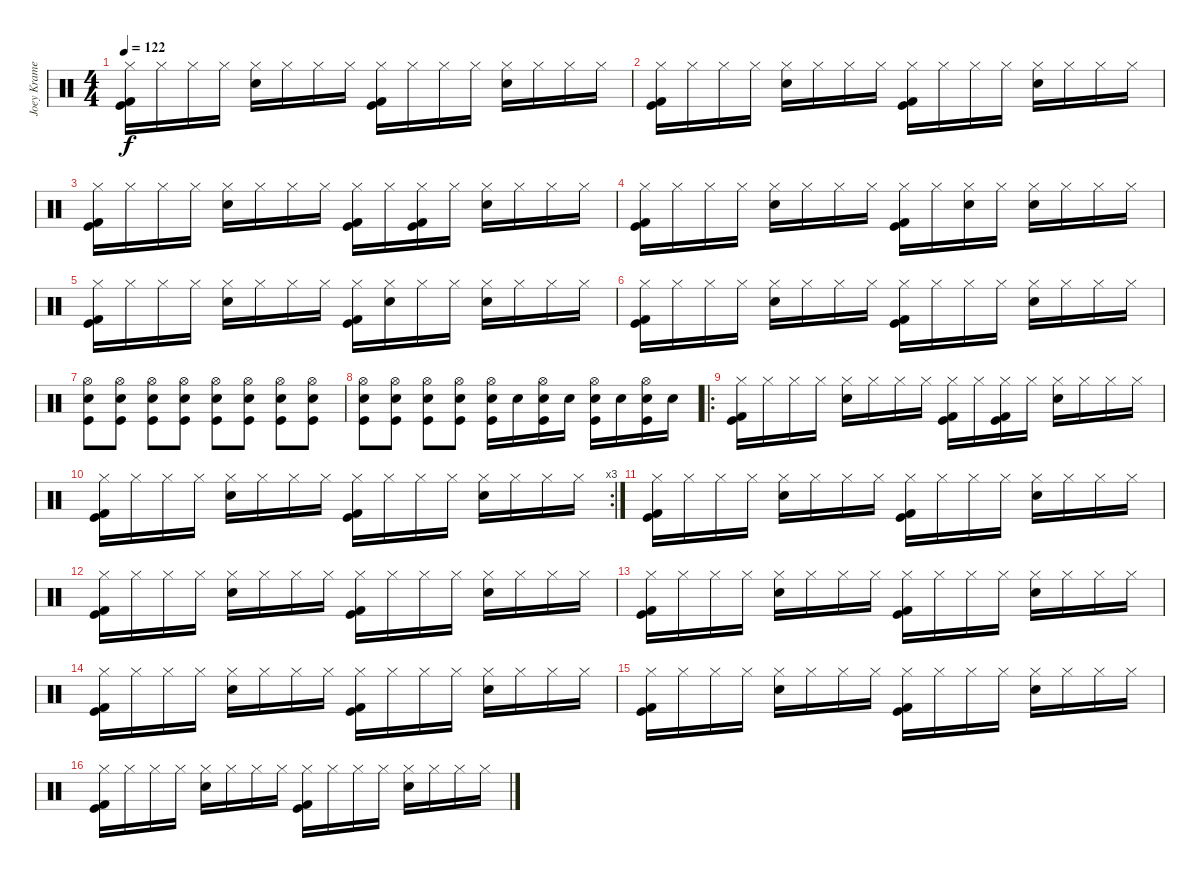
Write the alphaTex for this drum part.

\track ("Joey Kramer" "Joey Krame") {instrument percussion}
\staff {score}
\articulation defaults
\ts (4 4)
\tempo 122
\clef neutral
\ks c
("Hi-Hat (closed)" "Kick (hit)" "Kick (hit) 2").16{dy f} "Hi-Hat (closed)".16 "Hi-Hat (closed)".16 "Hi-Hat (closed)".16 ("Hi-Hat (closed)" "Snare (hit) 2").16 "Hi-Hat (closed)".16 "Hi-Hat (closed)".16 "Hi-Hat (closed)".16 ("Hi-Hat (closed)" "Kick (hit)" "Kick (hit) 2").16 "Hi-Hat (closed)".16 "Hi-Hat (closed)".16 "Hi-Hat (closed)".16 ("Hi-Hat (closed)" "Snare (hit) 2").16 "Hi-Hat (closed)".16 "Hi-Hat (closed)".16 "Hi-Hat (closed)".16 |
("Hi-Hat (closed)" "Kick (hit)" "Kick (hit) 2").16 "Hi-Hat (closed)".16 "Hi-Hat (closed)".16 "Hi-Hat (closed)".16 ("Hi-Hat (closed)" "Snare (hit) 2").16 "Hi-Hat (closed)".16 "Hi-Hat (closed)".16 "Hi-Hat (closed)".16 ("Hi-Hat (closed)" "Kick (hit)" "Kick (hit) 2").16 "Hi-Hat (closed)".16 "Hi-Hat (closed)".16 "Hi-Hat (closed)".16 ("Hi-Hat (closed)" "Snare (hit) 2").16 "Hi-Hat (closed)".16 "Hi-Hat (closed)".16 "Hi-Hat (closed)".16 |
("Hi-Hat (closed)" "Kick (hit)" "Kick (hit) 2").16 "Hi-Hat (closed)".16 "Hi-Hat (closed)".16 "Hi-Hat (closed)".16 ("Hi-Hat (closed)" "Snare (hit) 2").16 "Hi-Hat (closed)".16 "Hi-Hat (closed)".16 "Hi-Hat (closed)".16 ("Hi-Hat (closed)" "Kick (hit)" "Kick (hit) 2").16 "Hi-Hat (closed)".16 ("Hi-Hat (closed)" "Kick (hit)" "Kick (hit) 2").16 "Hi-Hat (closed)".16 ("Hi-Hat (closed)" "Snare (hit) 2").16 "Hi-Hat (closed)".16 "Hi-Hat (closed)".16 "Hi-Hat (closed)".16 |
("Hi-Hat (closed)" "Kick (hit)" "Kick (hit) 2").16 "Hi-Hat (closed)".16 "Hi-Hat (closed)".16 "Hi-Hat (closed)".16 ("Hi-Hat (closed)" "Snare (hit) 2").16 "Hi-Hat (closed)".16 "Hi-Hat (closed)".16 "Hi-Hat (closed)".16 ("Hi-Hat (closed)" "Kick (hit)" "Kick (hit) 2").16 "Hi-Hat (closed)".16 ("Hi-Hat (closed)" "Snare (hit) 2").16 "Hi-Hat (closed)".16 ("Hi-Hat (closed)" "Snare (hit) 2").16 "Hi-Hat (closed)".16 "Hi-Hat (closed)".16 "Hi-Hat (closed)".16 |
("Hi-Hat (closed)" "Kick (hit)" "Kick (hit) 2").16 "Hi-Hat (closed)".16 "Hi-Hat (closed)".16 "Hi-Hat (closed)".16 ("Hi-Hat (closed)" "Snare (hit) 2").16 "Hi-Hat (closed)".16 "Hi-Hat (closed)".16 "Hi-Hat (closed)".16 ("Hi-Hat (closed)" "Kick (hit)" "Kick (hit) 2").16 ("Hi-Hat (closed)" "Snare (hit) 2").16 "Hi-Hat (closed)".16 "Hi-Hat (closed)".16 ("Hi-Hat (closed)" "Snare (hit) 2").16 "Hi-Hat (closed)".16 "Hi-Hat (closed)".16 "Hi-Hat (closed)".16 |
("Hi-Hat (closed)" "Kick (hit)" "Kick (hit) 2").16 "Hi-Hat (closed)".16 "Hi-Hat (closed)".16 "Hi-Hat (closed)".16 ("Hi-Hat (closed)" "Snare (hit) 2").16 "Hi-Hat (closed)".16 "Hi-Hat (closed)".16 "Hi-Hat (closed)".16 ("Hi-Hat (closed)" "Kick (hit)" "Kick (hit) 2").16 "Hi-Hat (closed)".16 "Hi-Hat (closed)".16 "Hi-Hat (closed)".16 ("Hi-Hat (closed)" "Snare (hit) 2").16 "Hi-Hat (closed)".16 "Hi-Hat (closed)".16 "Hi-Hat (closed)".16 |
("Kick (hit)" "Snare (hit) 2" "Hi-Hat (open)").8 ("Kick (hit)" "Snare (hit) 2" "Hi-Hat (open)").8 ("Kick (hit)" "Snare (hit) 2" "Hi-Hat (open)").8 ("Kick (hit)" "Snare (hit) 2" "Hi-Hat (open)").8 ("Kick (hit)" "Snare (hit) 2" "Hi-Hat (open)").8 ("Kick (hit)" "Snare (hit) 2" "Hi-Hat (open)").8 ("Kick (hit)" "Snare (hit) 2" "Hi-Hat (open)").8 ("Kick (hit)" "Snare (hit) 2" "Hi-Hat (open)").8 |
("Kick (hit)" "Snare (hit) 2" "Hi-Hat (open)").8 ("Kick (hit)" "Snare (hit) 2" "Hi-Hat (open)").8 ("Kick (hit)" "Snare (hit) 2" "Hi-Hat (open)").8 ("Kick (hit)" "Snare (hit) 2" "Hi-Hat (open)").8 ("Kick (hit)" "Snare (hit) 2" "Hi-Hat (open)").16 "Snare (hit) 2".16 ("Kick (hit)" "Snare (hit) 2" "Hi-Hat (open)").16 "Snare (hit) 2".16 ("Kick (hit)" "Snare (hit) 2" "Hi-Hat (open)").16 "Snare (hit) 2".16 ("Kick (hit)" "Snare (hit) 2" "Hi-Hat (open)").16 "Snare (hit) 2".16 |
\ro
("Hi-Hat (closed)" "Kick (hit)" "Kick (hit) 2").16 "Hi-Hat (closed)".16 "Hi-Hat (closed)".16 "Hi-Hat (closed)".16 ("Hi-Hat (closed)" "Snare (hit) 2").16 "Hi-Hat (closed)".16 "Hi-Hat (closed)".16 "Hi-Hat (closed)".16 ("Hi-Hat (closed)" "Kick (hit)" "Kick (hit) 2").16 "Hi-Hat (closed)".16 ("Hi-Hat (closed)" "Kick (hit)" "Kick (hit) 2").16 "Hi-Hat (closed)".16 ("Hi-Hat (closed)" "Snare (hit) 2").16 "Hi-Hat (closed)".16 "Hi-Hat (closed)".16 "Hi-Hat (closed)".16 |
\rc 3
("Hi-Hat (closed)" "Kick (hit)" "Kick (hit) 2").16 "Hi-Hat (closed)".16 "Hi-Hat (closed)".16 "Hi-Hat (closed)".16 ("Hi-Hat (closed)" "Snare (hit) 2").16 "Hi-Hat (closed)".16 "Hi-Hat (closed)".16 "Hi-Hat (closed)".16 ("Hi-Hat (closed)" "Kick (hit)" "Kick (hit) 2").16 "Hi-Hat (closed)".16 "Hi-Hat (closed)".16 "Hi-Hat (closed)".16 ("Hi-Hat (closed)" "Snare (hit) 2").16 "Hi-Hat (closed)".16 "Hi-Hat (closed)".16 "Hi-Hat (closed)".16 |
("Hi-Hat (closed)" "Kick (hit)" "Kick (hit) 2").16 "Hi-Hat (closed)".16 "Hi-Hat (closed)".16 "Hi-Hat (closed)".16 ("Hi-Hat (closed)" "Snare (hit) 2").16 "Hi-Hat (closed)".16 "Hi-Hat (closed)".16 "Hi-Hat (closed)".16 ("Hi-Hat (closed)" "Kick (hit)" "Kick (hit) 2").16 "Hi-Hat (closed)".16 "Hi-Hat (closed)".16 "Hi-Hat (closed)".16 ("Hi-Hat (closed)" "Snare (hit) 2").16 "Hi-Hat (closed)".16 "Hi-Hat (closed)".16 "Hi-Hat (closed)".16 |
("Hi-Hat (closed)" "Kick (hit)" "Kick (hit) 2").16 "Hi-Hat (closed)".16 "Hi-Hat (closed)".16 "Hi-Hat (closed)".16 ("Hi-Hat (closed)" "Snare (hit) 2").16 "Hi-Hat (closed)".16 "Hi-Hat (closed)".16 "Hi-Hat (closed)".16 ("Hi-Hat (closed)" "Kick (hit)" "Kick (hit) 2").16 "Hi-Hat (closed)".16 "Hi-Hat (closed)".16 "Hi-Hat (closed)".16 ("Hi-Hat (closed)" "Snare (hit) 2").16 "Hi-Hat (closed)".16 "Hi-Hat (closed)".16 "Hi-Hat (closed)".16 |
("Hi-Hat (closed)" "Kick (hit)" "Kick (hit) 2").16 "Hi-Hat (closed)".16 "Hi-Hat (closed)".16 "Hi-Hat (closed)".16 ("Hi-Hat (closed)" "Snare (hit) 2").16 "Hi-Hat (closed)".16 "Hi-Hat (closed)".16 "Hi-Hat (closed)".16 ("Hi-Hat (closed)" "Kick (hit)" "Kick (hit) 2").16 "Hi-Hat (closed)".16 "Hi-Hat (closed)".16 "Hi-Hat (closed)".16 ("Hi-Hat (closed)" "Snare (hit) 2").16 "Hi-Hat (closed)".16 "Hi-Hat (closed)".16 "Hi-Hat (closed)".16 |
("Hi-Hat (closed)" "Kick (hit)" "Kick (hit) 2").16 "Hi-Hat (closed)".16 "Hi-Hat (closed)".16 "Hi-Hat (closed)".16 ("Hi-Hat (closed)" "Snare (hit) 2").16 "Hi-Hat (closed)".16 "Hi-Hat (closed)".16 "Hi-Hat (closed)".16 ("Hi-Hat (closed)" "Kick (hit)" "Kick (hit) 2").16 "Hi-Hat (closed)".16 "Hi-Hat (closed)".16 "Hi-Hat (closed)".16 ("Hi-Hat (closed)" "Snare (hit) 2").16 "Hi-Hat (closed)".16 "Hi-Hat (closed)".16 "Hi-Hat (closed)".16 |
("Hi-Hat (closed)" "Kick (hit)" "Kick (hit) 2").16 "Hi-Hat (closed)".16 "Hi-Hat (closed)".16 "Hi-Hat (closed)".16 ("Hi-Hat (closed)" "Snare (hit) 2").16 "Hi-Hat (closed)".16 "Hi-Hat (closed)".16 "Hi-Hat (closed)".16 ("Hi-Hat (closed)" "Kick (hit)" "Kick (hit) 2").16 "Hi-Hat (closed)".16 "Hi-Hat (closed)".16 "Hi-Hat (closed)".16 ("Hi-Hat (closed)" "Snare (hit) 2").16 "Hi-Hat (closed)".16 "Hi-Hat (closed)".16 "Hi-Hat (closed)".16 |
("Hi-Hat (closed)" "Kick (hit)" "Kick (hit) 2").16 "Hi-Hat (closed)".16 "Hi-Hat (closed)".16 "Hi-Hat (closed)".16 ("Hi-Hat (closed)" "Snare (hit) 2").16 "Hi-Hat (closed)".16 "Hi-Hat (closed)".16 "Hi-Hat (closed)".16 ("Hi-Hat (closed)" "Kick (hit)" "Kick (hit) 2").16 "Hi-Hat (closed)".16 "Hi-Hat (closed)".16 "Hi-Hat (closed)".16 ("Hi-Hat (closed)" "Snare (hit) 2").16 "Hi-Hat (closed)".16 "Hi-Hat (closed)".16 "Hi-Hat (closed)".16
